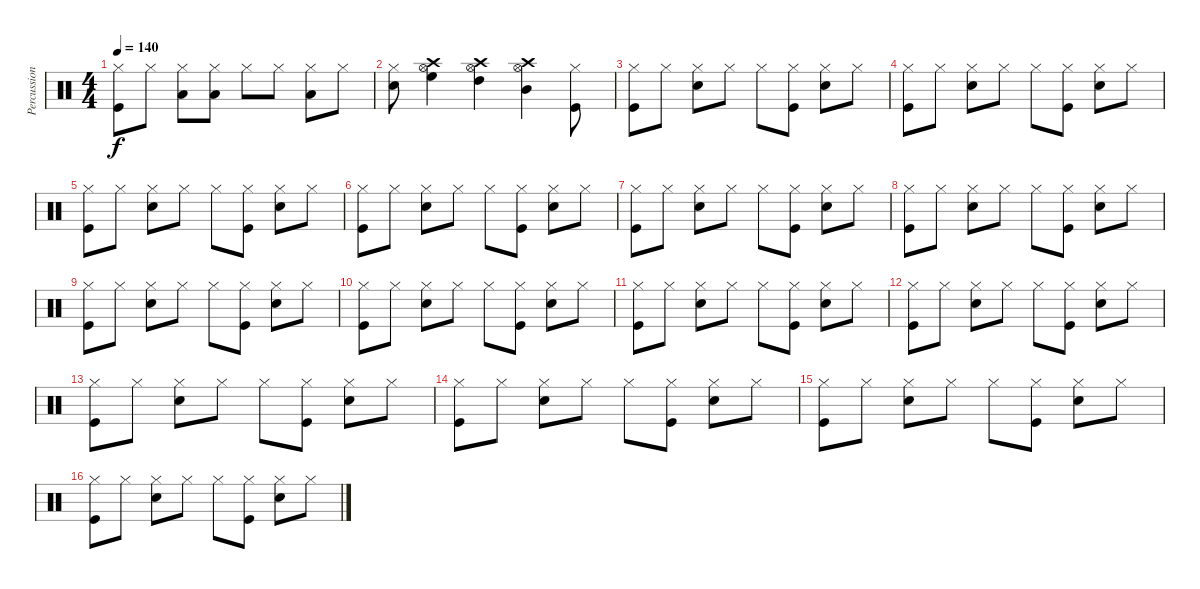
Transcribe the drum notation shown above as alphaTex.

\track ("Percussion" "Percussion") {instrument percussion}
\staff {score}
\articulation defaults
\ts (4 4)
\tempo 140
\clef neutral
\ks c
("Hi-Hat (closed)" "Kick (hit)").8{dy f} "Hi-Hat (closed)".8 ("Hi-Hat (closed)" "Low Tom (hit)").8 ("Hi-Hat (closed)" "Low Tom (hit)").8 "Hi-Hat (closed)".8 "Hi-Hat (closed)".8 ("Hi-Hat (closed)" "Low Tom (hit)").8 "Hi-Hat (closed)".8 |
("Hi-Hat (closed)" "Snare (hit) 2").8 ("Hi-Hat (open)" "Crash high (hit)" "High Floor Tom (hit)").4 ("Hi-Hat (open)" "Crash high (hit)" "High Tom (hit)").4 ("Hi-Hat (open)" "Crash high (hit)" "Mid Tom (hit)").4 ("Hi-Hat (closed)" "Kick (hit)").8 |
("Hi-Hat (closed)" "Kick (hit)").8 "Hi-Hat (closed)".8 ("Hi-Hat (closed)" "Snare (hit) 2").8 "Hi-Hat (closed)".8 "Hi-Hat (closed)".8 ("Hi-Hat (closed)" "Kick (hit)").8 ("Hi-Hat (closed)" "Snare (hit) 2").8 "Hi-Hat (closed)".8 |
("Hi-Hat (closed)" "Kick (hit)").8 "Hi-Hat (closed)".8 ("Hi-Hat (closed)" "Snare (hit) 2").8 "Hi-Hat (closed)".8 "Hi-Hat (closed)".8 ("Hi-Hat (closed)" "Kick (hit)").8 ("Hi-Hat (closed)" "Snare (hit) 2").8 "Hi-Hat (closed)".8 |
("Hi-Hat (closed)" "Kick (hit)").8 "Hi-Hat (closed)".8 ("Hi-Hat (closed)" "Snare (hit) 2").8 "Hi-Hat (closed)".8 "Hi-Hat (closed)".8 ("Hi-Hat (closed)" "Kick (hit)").8 ("Hi-Hat (closed)" "Snare (hit) 2").8 "Hi-Hat (closed)".8 |
("Hi-Hat (closed)" "Kick (hit)").8 "Hi-Hat (closed)".8 ("Hi-Hat (closed)" "Snare (hit) 2").8 "Hi-Hat (closed)".8 "Hi-Hat (closed)".8 ("Hi-Hat (closed)" "Kick (hit)").8 ("Hi-Hat (closed)" "Snare (hit) 2").8 "Hi-Hat (closed)".8 |
("Hi-Hat (closed)" "Kick (hit)").8 "Hi-Hat (closed)".8 ("Hi-Hat (closed)" "Snare (hit) 2").8 "Hi-Hat (closed)".8 "Hi-Hat (closed)".8 ("Hi-Hat (closed)" "Kick (hit)").8 ("Hi-Hat (closed)" "Snare (hit) 2").8 "Hi-Hat (closed)".8 |
("Hi-Hat (closed)" "Kick (hit)").8 "Hi-Hat (closed)".8 ("Hi-Hat (closed)" "Snare (hit) 2").8 "Hi-Hat (closed)".8 "Hi-Hat (closed)".8 ("Hi-Hat (closed)" "Kick (hit)").8 ("Hi-Hat (closed)" "Snare (hit) 2").8 "Hi-Hat (closed)".8 |
("Hi-Hat (closed)" "Kick (hit)").8 "Hi-Hat (closed)".8 ("Hi-Hat (closed)" "Snare (hit) 2").8 "Hi-Hat (closed)".8 "Hi-Hat (closed)".8 ("Hi-Hat (closed)" "Kick (hit)").8 ("Hi-Hat (closed)" "Snare (hit) 2").8 "Hi-Hat (closed)".8 |
("Hi-Hat (closed)" "Kick (hit)").8 "Hi-Hat (closed)".8 ("Hi-Hat (closed)" "Snare (hit) 2").8 "Hi-Hat (closed)".8 "Hi-Hat (closed)".8 ("Hi-Hat (closed)" "Kick (hit)").8 ("Hi-Hat (closed)" "Snare (hit) 2").8 "Hi-Hat (closed)".8 |
("Hi-Hat (closed)" "Kick (hit)").8 "Hi-Hat (closed)".8 ("Hi-Hat (closed)" "Snare (hit) 2").8 "Hi-Hat (closed)".8 "Hi-Hat (closed)".8 ("Hi-Hat (closed)" "Kick (hit)").8 ("Hi-Hat (closed)" "Snare (hit) 2").8 "Hi-Hat (closed)".8 |
("Hi-Hat (closed)" "Kick (hit)").8 "Hi-Hat (closed)".8 ("Hi-Hat (closed)" "Snare (hit) 2").8 "Hi-Hat (closed)".8 "Hi-Hat (closed)".8 ("Hi-Hat (closed)" "Kick (hit)").8 ("Hi-Hat (closed)" "Snare (hit) 2").8 "Hi-Hat (closed)".8 |
("Hi-Hat (closed)" "Kick (hit)").8 "Hi-Hat (closed)".8 ("Hi-Hat (closed)" "Snare (hit) 2").8 "Hi-Hat (closed)".8 "Hi-Hat (closed)".8 ("Hi-Hat (closed)" "Kick (hit)").8 ("Hi-Hat (closed)" "Snare (hit) 2").8 "Hi-Hat (closed)".8 |
("Hi-Hat (closed)" "Kick (hit)").8 "Hi-Hat (closed)".8 ("Hi-Hat (closed)" "Snare (hit) 2").8 "Hi-Hat (closed)".8 "Hi-Hat (closed)".8 ("Hi-Hat (closed)" "Kick (hit)").8 ("Hi-Hat (closed)" "Snare (hit) 2").8 "Hi-Hat (closed)".8 |
("Hi-Hat (closed)" "Kick (hit)").8 "Hi-Hat (closed)".8 ("Hi-Hat (closed)" "Snare (hit) 2").8 "Hi-Hat (closed)".8 "Hi-Hat (closed)".8 ("Hi-Hat (closed)" "Kick (hit)").8 ("Hi-Hat (closed)" "Snare (hit) 2").8 "Hi-Hat (closed)".8 |
("Hi-Hat (closed)" "Kick (hit)").8 "Hi-Hat (closed)".8 ("Hi-Hat (closed)" "Snare (hit) 2").8 "Hi-Hat (closed)".8 "Hi-Hat (closed)".8 ("Hi-Hat (closed)" "Kick (hit)").8 ("Hi-Hat (closed)" "Snare (hit) 2").8 "Hi-Hat (closed)".8
